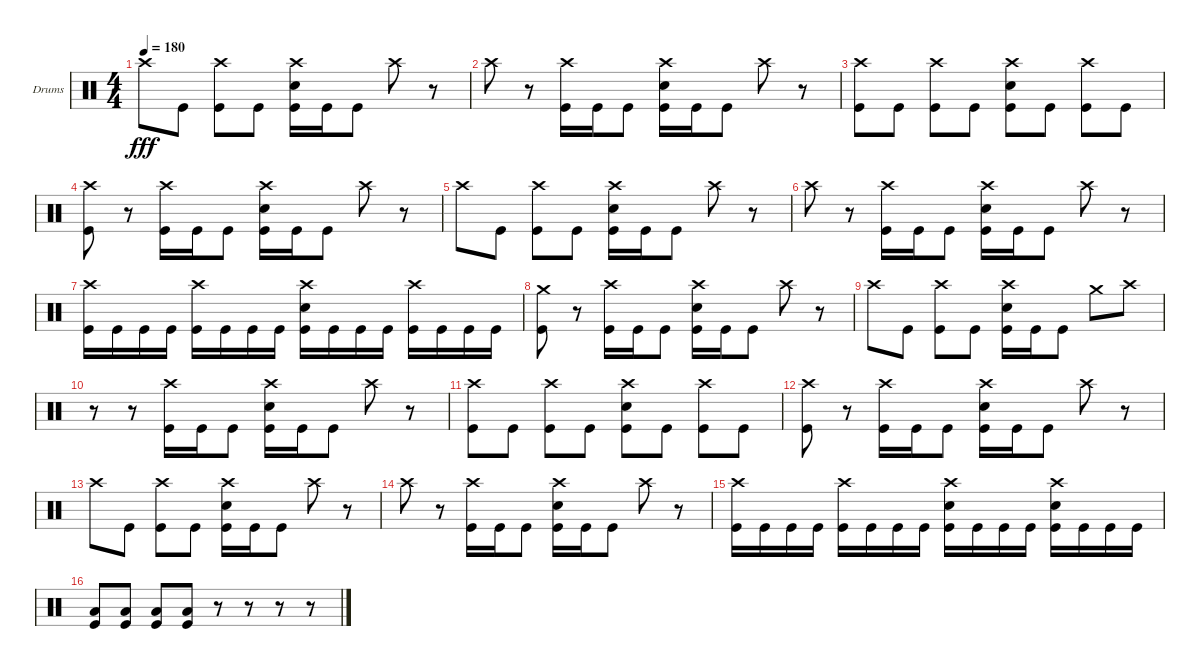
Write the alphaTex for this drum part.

\bracketExtendMode groupsimilarinstruments
\firstSystemTrackNameOrientation horizontal
\otherSystemsTrackNameOrientation horizontal
\track ("Drumkit" "Drums") {instrument percussion}
\staff {score}
\articulation defaults
\ts (4 4)
\tempo 180
\clef neutral
\ks c "Crash high (hit)".8{dy fff} "Kick (hit)".8
("Crash high (hit)" "Kick (hit)").8 "Kick (hit)".8 ("Crash high (hit)" "Snare (hit) 2" "Kick (hit)").16 "Kick (hit)".16 "Kick (hit)".8 "Crash high (hit)".8 r.8 |
"Crash high (hit)".8 r.8 ("Crash high (hit)" "Kick (hit)").16 "Kick (hit)".16 "Kick (hit)".8 ("Crash high (hit)" "Snare (hit) 2" "Kick (hit)").16 "Kick (hit)".16 "Kick (hit)".8 "Crash high (hit)".8 r.8 |
("Crash high (hit)" "Kick (hit)").8 "Kick (hit)".8 ("Crash high (hit)" "Kick (hit)").8 "Kick (hit)".8 ("Crash high (hit)" "Snare (hit) 2" "Kick (hit)").8 "Kick (hit)".8 ("Crash high (hit)" "Kick (hit)").8 "Kick (hit)".8 |
("Crash high (hit)" "Kick (hit)").8 r.8 ("Crash high (hit)" "Kick (hit)").16 "Kick (hit)".16 "Kick (hit)".8 ("Crash high (hit)" "Snare (hit) 2" "Kick (hit)").16 "Kick (hit)".16 "Kick (hit)".8 "Crash high (hit)".8 r.8 |
"Crash high (hit)".8 "Kick (hit)".8 ("Crash high (hit)" "Kick (hit)").8 "Kick (hit)".8 ("Crash high (hit)" "Snare (hit) 2" "Kick (hit)").16 "Kick (hit)".16 "Kick (hit)".8 "Crash high (hit)".8 r.8 |
"Crash high (hit)".8 r.8 ("Crash high (hit)" "Kick (hit)").16 "Kick (hit)".16 "Kick (hit)".8 ("Crash high (hit)" "Snare (hit) 2" "Kick (hit)").16 "Kick (hit)".16 "Kick (hit)".8 "Crash high (hit)".8 r.8 |
("Crash high (hit)" "Kick (hit)").16 "Kick (hit)".16 "Kick (hit)".16 "Kick (hit)".16 ("Crash high (hit)" "Kick (hit)").16 "Kick (hit)".16 "Kick (hit)".16 "Kick (hit)".16 ("Crash high (hit)" "Snare (hit) 2" "Kick (hit)").16 "Kick (hit)".16 "Kick (hit)".16 "Kick (hit)".16 ("Crash high (hit)" "Kick (hit)").16 "Kick (hit)".16 "Kick (hit)".16 "Kick (hit)".16 |
("Crash medium (hit)" "Kick (hit)").8 r.8 ("Crash high (hit)" "Kick (hit)").16 "Kick (hit)".16 "Kick (hit)".8 ("Crash high (hit)" "Snare (hit) 2" "Kick (hit)").16 "Kick (hit)".16 "Kick (hit)".8 "Crash high (hit)".8 r.8 |
"Crash high (hit)".8 "Kick (hit)".8 ("Crash high (hit)" "Kick (hit)").8 "Kick (hit)".8 ("Crash high (hit)" "Snare (hit) 2" "Kick (hit)").16 "Kick (hit)".16 "Kick (hit)".8 "Crash medium (hit)".8 "Crash high (hit)".8 |
r.8 r.8 ("Crash high (hit)" "Kick (hit)").16 "Kick (hit)".16 "Kick (hit)".8 ("Crash high (hit)" "Snare (hit) 2" "Kick (hit)").16 "Kick (hit)".16 "Kick (hit)".8 "Crash high (hit)".8 r.8 |
("Crash high (hit)" "Kick (hit)").8 "Kick (hit)".8 ("Crash high (hit)" "Kick (hit)").8 "Kick (hit)".8 ("Crash high (hit)" "Snare (hit) 2" "Kick (hit)").8 "Kick (hit)".8 ("Crash high (hit)" "Kick (hit)").8 "Kick (hit)".8 |
("Crash high (hit)" "Kick (hit)").8 r.8 ("Crash high (hit)" "Kick (hit)").16 "Kick (hit)".16 "Kick (hit)".8 ("Crash high (hit)" "Snare (hit) 2" "Kick (hit)").16 "Kick (hit)".16 "Kick (hit)".8 "Crash high (hit)".8 r.8 |
"Crash high (hit)".8 "Kick (hit)".8 ("Crash high (hit)" "Kick (hit)").8 "Kick (hit)".8 ("Crash high (hit)" "Snare (hit) 2" "Kick (hit)").16 "Kick (hit)".16 "Kick (hit)".8 "Crash high (hit)".8 r.8 |
"Crash high (hit)".8 r.8 ("Crash high (hit)" "Kick (hit)").16 "Kick (hit)".16 "Kick (hit)".8 ("Crash high (hit)" "Snare (hit) 2" "Kick (hit)").16 "Kick (hit)".16 "Kick (hit)".8 "Crash high (hit)".8 r.8 |
("Crash high (hit)" "Kick (hit)").16 "Kick (hit)".16 "Kick (hit)".16 "Kick (hit)".16 ("Crash high (hit)" "Kick (hit)").16 "Kick (hit)".16 "Kick (hit)".16 "Kick (hit)".16 ("Crash high (hit)" "Snare (hit) 2" "Kick (hit)").16 "Kick (hit)".16 "Kick (hit)".16 "Kick (hit)".16 ("Crash high (hit)" "Snare (hit) 2" "Kick (hit)").16 "Kick (hit)".16 "Kick (hit)".16 "Kick (hit)".16 |
("Low Tom (hit)" "Kick (hit)").8 ("Low Tom (hit)" "Kick (hit)").8 ("Low Tom (hit)" "Kick (hit)").8 ("Low Tom (hit)" "Kick (hit)").8 r.8 r.8 r.8 r.8
